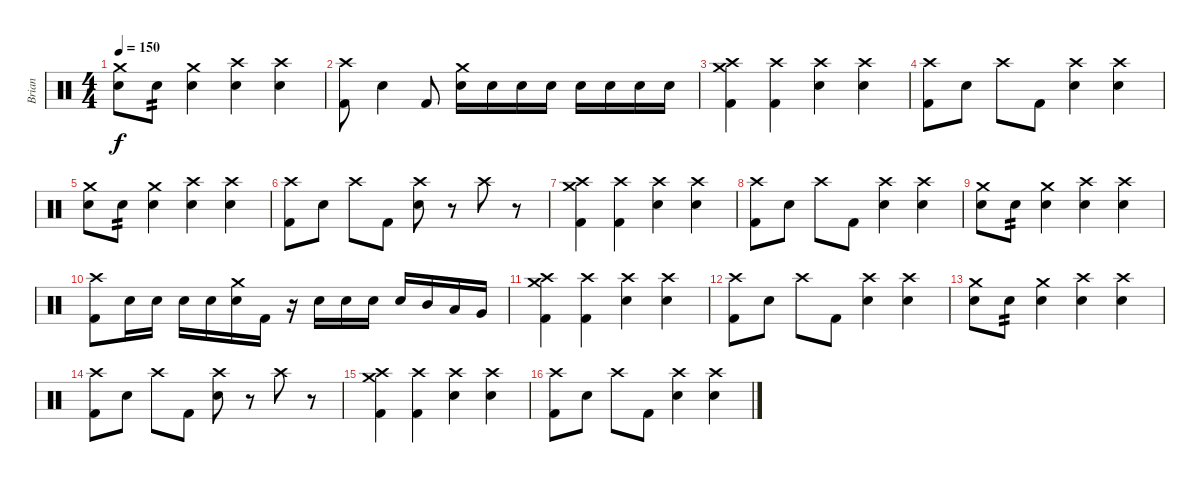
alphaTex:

\track ("Brian" "Brian") {instrument percussion}
\staff {score}
\articulation defaults
\ts (4 4)
\tempo 150
\clef neutral
\ks c
("Crash medium (hit)" "Snare (hit) 2").8{dy f} "Snare (hit) 2".8{tp 2} ("Crash medium (hit)" "Snare (hit) 2").4 ("Crash high (hit)" "Snare (hit) 2").4 ("Crash high (hit)" "Snare (hit) 2").4 |
("Crash high (hit)" "Kick (hit) 2").8 "Snare (hit) 2".4 "Kick (hit) 2".8 ("Crash medium (hit)" "Snare (hit) 2").16 "Snare (hit) 2".16 "Snare (hit) 2".16 "Snare (hit) 2".16 "Snare (hit) 2".16 "Snare (hit) 2".16 "Snare (hit) 2".16 "Snare (hit) 2".16 |
("Crash high (hit)" "Crash medium (hit)" "Kick (hit) 2").4 ("Crash high (hit)" "Kick (hit) 2").4 ("Crash high (hit)" "Snare (hit) 2").4 ("Crash high (hit)" "Snare (hit) 2").4 |
("Crash high (hit)" "Kick (hit) 2").8 "Snare (hit) 2".8 "Crash high (hit)".8 "Kick (hit) 2".8 ("Crash high (hit)" "Snare (hit) 2").4 ("Crash high (hit)" "Snare (hit) 2").4 |
("Crash medium (hit)" "Snare (hit) 2").8 "Snare (hit) 2".8{tp 2} ("Crash medium (hit)" "Snare (hit) 2").4 ("Crash high (hit)" "Snare (hit) 2").4 ("Crash high (hit)" "Snare (hit) 2").4 |
("Crash high (hit)" "Kick (hit) 2").8 "Snare (hit) 2".8 "Crash high (hit)".8 "Kick (hit) 2".8 ("Crash high (hit)" "Snare (hit) 2").8 r.8 "Crash high (hit)".8 r.8 |
("Crash high (hit)" "Crash medium (hit)" "Kick (hit) 2").4 ("Crash high (hit)" "Kick (hit) 2").4 ("Crash high (hit)" "Snare (hit) 2").4 ("Crash high (hit)" "Snare (hit) 2").4 |
("Crash high (hit)" "Kick (hit) 2").8 "Snare (hit) 2".8 "Crash high (hit)".8 "Kick (hit) 2".8 ("Crash high (hit)" "Snare (hit) 2").4 ("Crash high (hit)" "Snare (hit) 2").4 |
("Crash medium (hit)" "Snare (hit) 2").8 "Snare (hit) 2".8{tp 2} ("Crash medium (hit)" "Snare (hit) 2").4 ("Crash high (hit)" "Snare (hit) 2").4 ("Crash high (hit)" "Snare (hit) 2").4 |
("Crash high (hit)" "Kick (hit) 2").8 "Snare (hit) 2".16 "Snare (hit) 2".16 "Snare (hit) 2".16 "Snare (hit) 2".16 ("Crash medium (hit)" "Snare (hit) 2").16 "Kick (hit) 2".16 r.16 "Snare (hit) 2".16 "Snare (hit) 2".16 "Snare (hit) 2".16 "Snare (hit) 2".16 "Mid Tom (hit)".16 "Low Tom (hit)".16 "Very Low Tom (hit)".16 |
("Crash high (hit)" "Crash medium (hit)" "Kick (hit) 2").4 ("Crash high (hit)" "Kick (hit) 2").4 ("Crash high (hit)" "Snare (hit) 2").4 ("Crash high (hit)" "Snare (hit) 2").4 |
("Crash high (hit)" "Kick (hit) 2").8 "Snare (hit) 2".8 "Crash high (hit)".8 "Kick (hit) 2".8 ("Crash high (hit)" "Snare (hit) 2").4 ("Crash high (hit)" "Snare (hit) 2").4 |
("Crash medium (hit)" "Snare (hit) 2").8 "Snare (hit) 2".8{tp 2} ("Crash medium (hit)" "Snare (hit) 2").4 ("Crash high (hit)" "Snare (hit) 2").4 ("Crash high (hit)" "Snare (hit) 2").4 |
("Crash high (hit)" "Kick (hit) 2").8 "Snare (hit) 2".8 "Crash high (hit)".8 "Kick (hit) 2".8 ("Crash high (hit)" "Snare (hit) 2").8 r.8 "Crash high (hit)".8 r.8 |
("Crash high (hit)" "Crash medium (hit)" "Kick (hit) 2").4 ("Crash high (hit)" "Kick (hit) 2").4 ("Crash high (hit)" "Snare (hit) 2").4 ("Crash high (hit)" "Snare (hit) 2").4 |
("Crash high (hit)" "Kick (hit) 2").8 "Snare (hit) 2".8 "Crash high (hit)".8 "Kick (hit) 2".8 ("Crash high (hit)" "Snare (hit) 2").4 ("Crash high (hit)" "Snare (hit) 2").4
